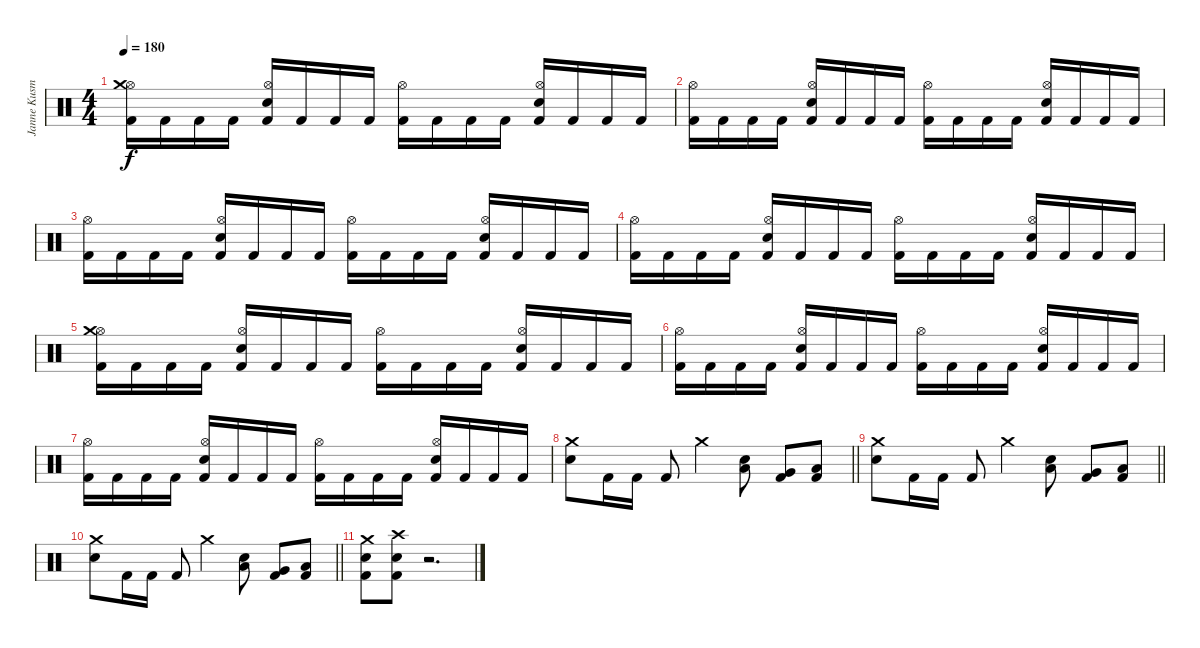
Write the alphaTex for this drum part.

\track ("Janne Kusmin" "Janne Kusm") {instrument percussion}
\staff {score}
\articulation defaults
\ts (4 4)
\tempo 180
\clef neutral
\ks c
("Kick (hit) 2" "Hi-Hat (open)" "Crash medium (hit)").16{dy f} "Kick (hit) 2".16 "Kick (hit) 2".16 "Kick (hit) 2".16 ("Kick (hit) 2" "Electric Snare (hit)" "Hi-Hat (open)").16 "Kick (hit) 2".16 "Kick (hit) 2".16 "Kick (hit) 2".16 ("Kick (hit) 2" "Hi-Hat (open)").16 "Kick (hit) 2".16 "Kick (hit) 2".16 "Kick (hit) 2".16 ("Kick (hit) 2" "Electric Snare (hit)" "Hi-Hat (open)").16 "Kick (hit) 2".16 "Kick (hit) 2".16 "Kick (hit) 2".16 |
("Kick (hit) 2" "Hi-Hat (open)").16 "Kick (hit) 2".16 "Kick (hit) 2".16 "Kick (hit) 2".16 ("Kick (hit) 2" "Electric Snare (hit)" "Hi-Hat (open)").16 "Kick (hit) 2".16 "Kick (hit) 2".16 "Kick (hit) 2".16 ("Kick (hit) 2" "Hi-Hat (open)").16 "Kick (hit) 2".16 "Kick (hit) 2".16 "Kick (hit) 2".16 ("Kick (hit) 2" "Electric Snare (hit)" "Hi-Hat (open)").16 "Kick (hit) 2".16 "Kick (hit) 2".16 "Kick (hit) 2".16 |
("Kick (hit) 2" "Hi-Hat (open)").16 "Kick (hit) 2".16 "Kick (hit) 2".16 "Kick (hit) 2".16 ("Kick (hit) 2" "Electric Snare (hit)" "Hi-Hat (open)").16 "Kick (hit) 2".16 "Kick (hit) 2".16 "Kick (hit) 2".16 ("Kick (hit) 2" "Hi-Hat (open)").16 "Kick (hit) 2".16 "Kick (hit) 2".16 "Kick (hit) 2".16 ("Kick (hit) 2" "Electric Snare (hit)" "Hi-Hat (open)").16 "Kick (hit) 2".16 "Kick (hit) 2".16 "Kick (hit) 2".16 |
("Kick (hit) 2" "Hi-Hat (open)").16 "Kick (hit) 2".16 "Kick (hit) 2".16 "Kick (hit) 2".16 ("Kick (hit) 2" "Electric Snare (hit)" "Hi-Hat (open)").16 "Kick (hit) 2".16 "Kick (hit) 2".16 "Kick (hit) 2".16 ("Kick (hit) 2" "Hi-Hat (open)").16 "Kick (hit) 2".16 "Kick (hit) 2".16 "Kick (hit) 2".16 ("Kick (hit) 2" "Electric Snare (hit)" "Hi-Hat (open)").16 "Kick (hit) 2".16 "Kick (hit) 2".16 "Kick (hit) 2".16 |
("Kick (hit) 2" "Hi-Hat (open)" "Crash medium (hit)").16 "Kick (hit) 2".16 "Kick (hit) 2".16 "Kick (hit) 2".16 ("Kick (hit) 2" "Electric Snare (hit)" "Hi-Hat (open)").16 "Kick (hit) 2".16 "Kick (hit) 2".16 "Kick (hit) 2".16 ("Kick (hit) 2" "Hi-Hat (open)").16 "Kick (hit) 2".16 "Kick (hit) 2".16 "Kick (hit) 2".16 ("Kick (hit) 2" "Electric Snare (hit)" "Hi-Hat (open)").16 "Kick (hit) 2".16 "Kick (hit) 2".16 "Kick (hit) 2".16 |
("Kick (hit) 2" "Hi-Hat (open)").16 "Kick (hit) 2".16 "Kick (hit) 2".16 "Kick (hit) 2".16 ("Kick (hit) 2" "Electric Snare (hit)" "Hi-Hat (open)").16 "Kick (hit) 2".16 "Kick (hit) 2".16 "Kick (hit) 2".16 ("Kick (hit) 2" "Hi-Hat (open)").16 "Kick (hit) 2".16 "Kick (hit) 2".16 "Kick (hit) 2".16 ("Kick (hit) 2" "Electric Snare (hit)" "Hi-Hat (open)").16 "Kick (hit) 2".16 "Kick (hit) 2".16 "Kick (hit) 2".16 |
("Kick (hit) 2" "Hi-Hat (open)").16 "Kick (hit) 2".16 "Kick (hit) 2".16 "Kick (hit) 2".16 ("Kick (hit) 2" "Electric Snare (hit)" "Hi-Hat (open)").16 "Kick (hit) 2".16 "Kick (hit) 2".16 "Kick (hit) 2".16 ("Kick (hit) 2" "Hi-Hat (open)").16 "Kick (hit) 2".16 "Kick (hit) 2".16 "Kick (hit) 2".16 ("Kick (hit) 2" "Electric Snare (hit)" "Hi-Hat (open)").16 "Kick (hit) 2".16 "Kick (hit) 2".16 "Kick (hit) 2".16 |
\barLineRight lightlight
("Electric Snare (hit)" "Crash medium (hit)").8 "Kick (hit) 2".16 "Kick (hit) 2".16 "Kick (hit) 2".8 "Crash medium (hit)".4 ("Electric Snare (hit)" "Low Tom (hit)").8 ("Kick (hit) 2" "Very Low Tom (hit)").8 ("Kick (hit) 2" "Low Floor Tom (hit)").8 |
\barLineRight lightlight
("Electric Snare (hit)" "Crash medium (hit)").8 "Kick (hit) 2".16 "Kick (hit) 2".16 "Kick (hit) 2".8 "Crash medium (hit)".4 ("Electric Snare (hit)" "Low Tom (hit)").8 ("Kick (hit) 2" "Very Low Tom (hit)").8 ("Kick (hit) 2" "Low Floor Tom (hit)").8 |
\barLineRight lightlight
("Electric Snare (hit)" "Crash medium (hit)").8 "Kick (hit) 2".16 "Kick (hit) 2".16 "Kick (hit) 2".8 "Crash medium (hit)".4 ("Electric Snare (hit)" "Low Tom (hit)").8 ("Kick (hit) 2" "Very Low Tom (hit)").8 ("Kick (hit) 2" "Low Floor Tom (hit)").8 |
("Kick (hit) 2" "Electric Snare (hit)" "Crash medium (hit)").8 ("Kick (hit) 2" "Electric Snare (hit)" "Crash high (hit)").8 r.2{d}
